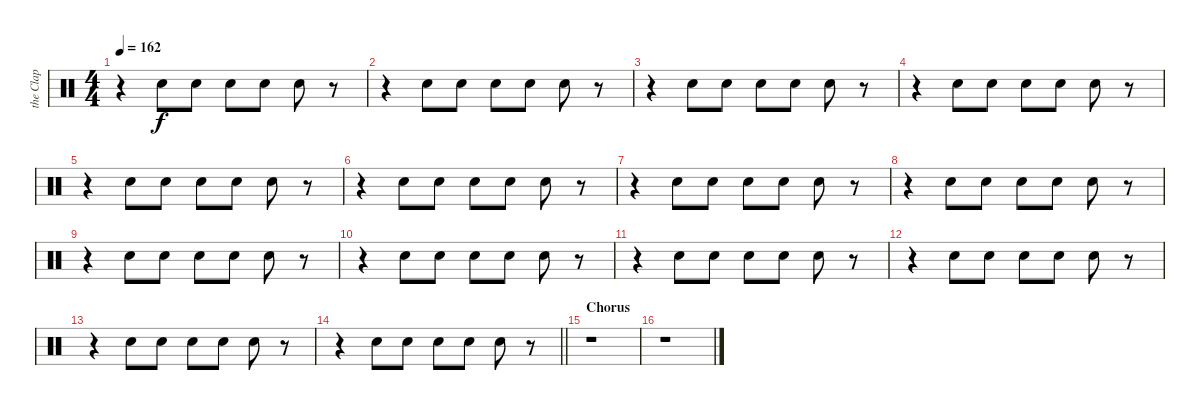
\track ("the Clap" "the Clap") {instrument percussion}
\staff {score}
\articulation defaults
\ts (4 4)
\tempo 162
\clef neutral
\ks c
r.4{dy f} "Hand Clap (hit)".8 "Hand Clap (hit)".8 "Hand Clap (hit)".8 "Hand Clap (hit)".8 "Hand Clap (hit)".8 r.8 |
r.4 "Hand Clap (hit)".8 "Hand Clap (hit)".8 "Hand Clap (hit)".8 "Hand Clap (hit)".8 "Hand Clap (hit)".8 r.8 |
r.4 "Hand Clap (hit)".8 "Hand Clap (hit)".8 "Hand Clap (hit)".8 "Hand Clap (hit)".8 "Hand Clap (hit)".8 r.8 |
r.4 "Hand Clap (hit)".8 "Hand Clap (hit)".8 "Hand Clap (hit)".8 "Hand Clap (hit)".8 "Hand Clap (hit)".8 r.8 |
r.4 "Hand Clap (hit)".8 "Hand Clap (hit)".8 "Hand Clap (hit)".8 "Hand Clap (hit)".8 "Hand Clap (hit)".8 r.8 |
r.4 "Hand Clap (hit)".8 "Hand Clap (hit)".8 "Hand Clap (hit)".8 "Hand Clap (hit)".8 "Hand Clap (hit)".8 r.8 |
r.4 "Hand Clap (hit)".8 "Hand Clap (hit)".8 "Hand Clap (hit)".8 "Hand Clap (hit)".8 "Hand Clap (hit)".8 r.8 |
r.4 "Hand Clap (hit)".8 "Hand Clap (hit)".8 "Hand Clap (hit)".8 "Hand Clap (hit)".8 "Hand Clap (hit)".8 r.8 |
r.4 "Hand Clap (hit)".8 "Hand Clap (hit)".8 "Hand Clap (hit)".8 "Hand Clap (hit)".8 "Hand Clap (hit)".8 r.8 |
r.4 "Hand Clap (hit)".8 "Hand Clap (hit)".8 "Hand Clap (hit)".8 "Hand Clap (hit)".8 "Hand Clap (hit)".8 r.8 |
r.4 "Hand Clap (hit)".8 "Hand Clap (hit)".8 "Hand Clap (hit)".8 "Hand Clap (hit)".8 "Hand Clap (hit)".8 r.8 |
r.4 "Hand Clap (hit)".8 "Hand Clap (hit)".8 "Hand Clap (hit)".8 "Hand Clap (hit)".8 "Hand Clap (hit)".8 r.8 |
r.4 "Hand Clap (hit)".8 "Hand Clap (hit)".8 "Hand Clap (hit)".8 "Hand Clap (hit)".8 "Hand Clap (hit)".8 r.8 |
\barLineRight lightlight
r.4 "Hand Clap (hit)".8 "Hand Clap (hit)".8 "Hand Clap (hit)".8 "Hand Clap (hit)".8 "Hand Clap (hit)".8 r.8 |
\section ("" "Chorus")
r.1 |
r.1
